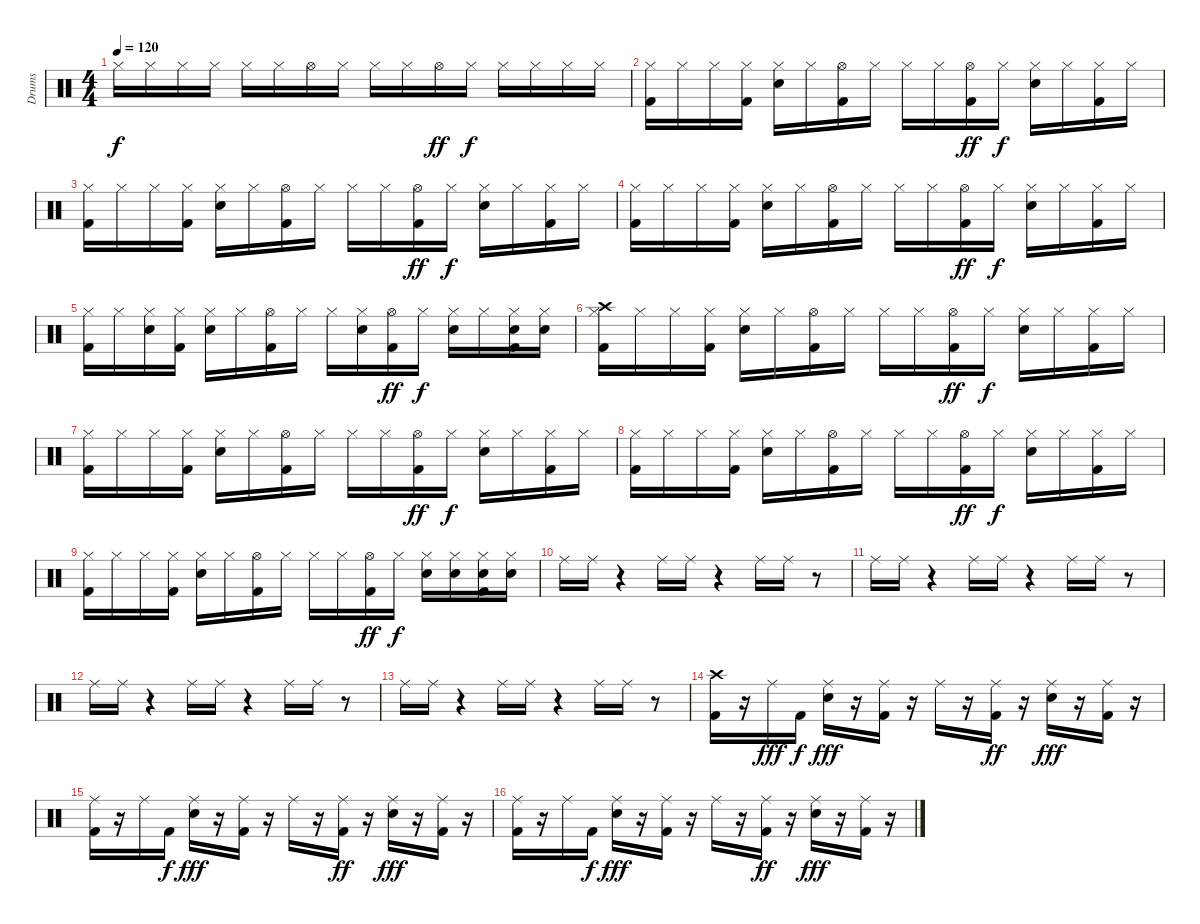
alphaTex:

\track ("Drums" "Drums") {instrument percussion}
\staff {score}
\articulation defaults
\ts (4 4)
\tempo 120
\clef neutral
\ks c "Hi-Hat (closed)".16{dy f} "Hi-Hat (closed)".16 "Hi-Hat (closed)".16 "Hi-Hat (closed)".16 "Hi-Hat (closed)".16 "Hi-Hat (closed)".16 "Hi-Hat (open)".16 "Hi-Hat (closed)".16 "Hi-Hat (closed)".16 "Hi-Hat (closed)".16 "Hi-Hat (open)".16{dy ff} "Hi-Hat (closed)".16{dy f} "Hi-Hat (closed)".16 "Hi-Hat (closed)".16 "Hi-Hat (closed)".16 "Hi-Hat (closed)".16
|
("Hi-Hat (closed)" "Kick (hit) 2").16 "Hi-Hat (closed)".16 "Hi-Hat (closed)".16 ("Hi-Hat (closed)" "Kick (hit) 2").16 ("Snare (hit) 2" "Hi-Hat (closed)").16 "Hi-Hat (closed)".16 ("Hi-Hat (open)" "Kick (hit) 2").16 "Hi-Hat (closed)".16 "Hi-Hat (closed)".16 "Hi-Hat (closed)".16 ("Hi-Hat (open)" "Kick (hit) 2").16{dy ff} "Hi-Hat (closed)".16{dy f} ("Snare (hit) 2" "Hi-Hat (closed)").16 "Hi-Hat (closed)".16 ("Hi-Hat (closed)" "Kick (hit) 2").16 "Hi-Hat (closed)".16 |
("Hi-Hat (closed)" "Kick (hit) 2").16 "Hi-Hat (closed)".16 "Hi-Hat (closed)".16 ("Hi-Hat (closed)" "Kick (hit) 2").16 ("Snare (hit) 2" "Hi-Hat (closed)").16 "Hi-Hat (closed)".16 ("Hi-Hat (open)" "Kick (hit) 2").16 "Hi-Hat (closed)".16 "Hi-Hat (closed)".16 "Hi-Hat (closed)".16 ("Hi-Hat (open)" "Kick (hit) 2").16{dy ff} "Hi-Hat (closed)".16{dy f} ("Snare (hit) 2" "Hi-Hat (closed)").16 "Hi-Hat (closed)".16 ("Hi-Hat (closed)" "Kick (hit) 2").16 "Hi-Hat (closed)".16 |
("Hi-Hat (closed)" "Kick (hit) 2").16 "Hi-Hat (closed)".16 "Hi-Hat (closed)".16 ("Hi-Hat (closed)" "Kick (hit) 2").16 ("Snare (hit) 2" "Hi-Hat (closed)").16 "Hi-Hat (closed)".16 ("Hi-Hat (open)" "Kick (hit) 2").16 "Hi-Hat (closed)".16 "Hi-Hat (closed)".16 "Hi-Hat (closed)".16 ("Hi-Hat (open)" "Kick (hit) 2").16{dy ff} "Hi-Hat (closed)".16{dy f} ("Snare (hit) 2" "Hi-Hat (closed)").16 "Hi-Hat (closed)".16 ("Hi-Hat (closed)" "Kick (hit) 2").16 "Hi-Hat (closed)".16 |
("Hi-Hat (closed)" "Kick (hit) 2").16 "Hi-Hat (closed)".16 ("Snare (hit) 2" "Hi-Hat (closed)").16 ("Hi-Hat (closed)" "Kick (hit) 2").16 ("Snare (hit) 2" "Hi-Hat (closed)").16 "Hi-Hat (closed)".16 ("Hi-Hat (open)" "Kick (hit) 2").16 "Hi-Hat (closed)".16 "Hi-Hat (closed)".16 ("Snare (hit) 2" "Hi-Hat (closed)").16 ("Hi-Hat (open)" "Kick (hit) 2").16{dy ff} "Hi-Hat (closed)".16{dy f} ("Snare (hit) 2" "Hi-Hat (closed)").16 "Hi-Hat (closed)".16 ("Snare (hit) 2" "Hi-Hat (closed)" "Kick (hit) 2").16 ("Snare (hit) 2" "Hi-Hat (closed)").16 |
("Crash high (hit)" "Hi-Hat (closed)" "Kick (hit) 2").16 "Hi-Hat (closed)".16 "Hi-Hat (closed)".16 ("Hi-Hat (closed)" "Kick (hit) 2").16 ("Snare (hit) 2" "Hi-Hat (closed)").16 "Hi-Hat (closed)".16 ("Hi-Hat (open)" "Kick (hit) 2").16 "Hi-Hat (closed)".16 "Hi-Hat (closed)".16 "Hi-Hat (closed)".16 ("Hi-Hat (open)" "Kick (hit) 2").16{dy ff} "Hi-Hat (closed)".16{dy f} ("Snare (hit) 2" "Hi-Hat (closed)").16 "Hi-Hat (closed)".16 ("Hi-Hat (closed)" "Kick (hit) 2").16 "Hi-Hat (closed)".16 |
("Hi-Hat (closed)" "Kick (hit) 2").16 "Hi-Hat (closed)".16 "Hi-Hat (closed)".16 ("Hi-Hat (closed)" "Kick (hit) 2").16 ("Snare (hit) 2" "Hi-Hat (closed)").16 "Hi-Hat (closed)".16 ("Hi-Hat (open)" "Kick (hit) 2").16 "Hi-Hat (closed)".16 "Hi-Hat (closed)".16 "Hi-Hat (closed)".16 ("Hi-Hat (open)" "Kick (hit) 2").16{dy ff} "Hi-Hat (closed)".16{dy f} ("Snare (hit) 2" "Hi-Hat (closed)").16 "Hi-Hat (closed)".16 ("Hi-Hat (closed)" "Kick (hit) 2").16 "Hi-Hat (closed)".16 |
("Hi-Hat (closed)" "Kick (hit) 2").16 "Hi-Hat (closed)".16 "Hi-Hat (closed)".16 ("Hi-Hat (closed)" "Kick (hit) 2").16 ("Snare (hit) 2" "Hi-Hat (closed)").16 "Hi-Hat (closed)".16 ("Hi-Hat (open)" "Kick (hit) 2").16 "Hi-Hat (closed)".16 "Hi-Hat (closed)".16 "Hi-Hat (closed)".16 ("Hi-Hat (open)" "Kick (hit) 2").16{dy ff} "Hi-Hat (closed)".16{dy f} ("Snare (hit) 2" "Hi-Hat (closed)").16 "Hi-Hat (closed)".16 ("Hi-Hat (closed)" "Kick (hit) 2").16 "Hi-Hat (closed)".16 |
("Hi-Hat (closed)" "Kick (hit) 2").16 "Hi-Hat (closed)".16 "Hi-Hat (closed)".16 ("Hi-Hat (closed)" "Kick (hit) 2").16 ("Snare (hit) 2" "Hi-Hat (closed)").16 "Hi-Hat (closed)".16 ("Hi-Hat (open)" "Kick (hit) 2").16 "Hi-Hat (closed)".16 "Hi-Hat (closed)".16 "Hi-Hat (closed)".16 ("Hi-Hat (open)" "Kick (hit) 2").16{dy ff} "Hi-Hat (closed)".16{dy f} ("Snare (hit) 2" "Hi-Hat (closed)").16 ("Snare (hit) 2" "Hi-Hat (closed)").16 ("Snare (hit) 2" "Hi-Hat (closed)" "Kick (hit) 2").16 ("Snare (hit) 2" "Hi-Hat (closed)").16 |
"Ride (middle)".16 "Ride (middle)".16 r.4 "Ride (middle)".16 "Ride (middle)".16 r.4 "Ride (middle)".16 "Ride (middle)".16 r.8 |
"Ride (middle)".16 "Ride (middle)".16 r.4 "Ride (middle)".16 "Ride (middle)".16 r.4 "Ride (middle)".16 "Ride (middle)".16 r.8 |
"Ride (middle)".16 "Ride (middle)".16 r.4 "Ride (middle)".16 "Ride (middle)".16 r.4 "Ride (middle)".16 "Ride (middle)".16 r.8 |
"Ride (middle)".16 "Ride (middle)".16 r.4 "Ride (middle)".16 "Ride (middle)".16 r.4 "Ride (middle)".16 "Ride (middle)".16 r.8 |
("Crash high (hit)" "Kick (hit) 2").16 r.16 "Ride (middle)".16{dy fff} "Kick (hit) 2".16{dy f} ("Snare (hit) 2" "Ride (middle)").16{dy fff} r.16 ("Ride (middle)" "Kick (hit) 2").16 r.16 "Ride (middle)".16 r.16 ("Ride (middle)" "Kick (hit) 2").16{dy ff} r.16 ("Snare (hit) 2" "Ride (middle)").16{dy fff} r.16 ("Ride (middle)" "Kick (hit) 2").16 r.16 |
("Ride (middle)" "Kick (hit) 2").16 r.16 "Ride (middle)".16 "Kick (hit) 2".16{dy f} ("Snare (hit) 2" "Ride (middle)").16{dy fff} r.16 ("Ride (middle)" "Kick (hit) 2").16 r.16 "Ride (middle)".16 r.16 ("Ride (middle)" "Kick (hit) 2").16{dy ff} r.16 ("Snare (hit) 2" "Ride (middle)").16{dy fff} r.16 ("Ride (middle)" "Kick (hit) 2").16 r.16 |
("Ride (middle)" "Kick (hit) 2").16 r.16 "Ride (middle)".16 "Kick (hit) 2".16{dy f} ("Snare (hit) 2" "Ride (middle)").16{dy fff} r.16 ("Ride (middle)" "Kick (hit) 2").16 r.16 "Ride (middle)".16 r.16 ("Ride (middle)" "Kick (hit) 2").16{dy ff} r.16 ("Snare (hit) 2" "Ride (middle)").16{dy fff} r.16 ("Ride (middle)" "Kick (hit) 2").16 r.16
